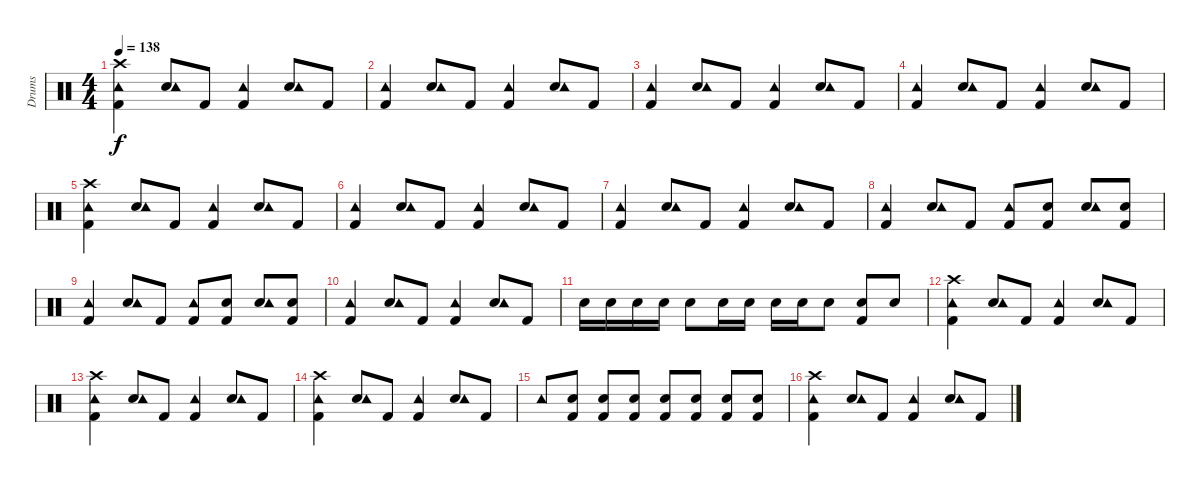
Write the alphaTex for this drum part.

\track ("Drums" "Drums") {instrument percussion}
\staff {score}
\articulation defaults
\ts (4 4)
\tempo 138
\clef neutral
\ks c
("Kick (hit) 2" "Tambourine (hit)" "Crash high (hit)").4{dy f} ("Snare (hit) 2" "Tambourine (hit)").8 "Kick (hit) 2".8 ("Kick (hit) 2" "Tambourine (hit)").4 ("Snare (hit) 2" "Tambourine (hit)").8 "Kick (hit) 2".8 |
("Kick (hit) 2" "Tambourine (hit)").4 ("Snare (hit) 2" "Tambourine (hit)").8 "Kick (hit) 2".8 ("Kick (hit) 2" "Tambourine (hit)").4 ("Snare (hit) 2" "Tambourine (hit)").8 "Kick (hit) 2".8 |
("Kick (hit) 2" "Tambourine (hit)").4 ("Snare (hit) 2" "Tambourine (hit)").8 "Kick (hit) 2".8 ("Kick (hit) 2" "Tambourine (hit)").4 ("Snare (hit) 2" "Tambourine (hit)").8 "Kick (hit) 2".8 |
("Kick (hit) 2" "Tambourine (hit)").4 ("Snare (hit) 2" "Tambourine (hit)").8 "Kick (hit) 2".8 ("Kick (hit) 2" "Tambourine (hit)").4 ("Snare (hit) 2" "Tambourine (hit)").8 "Kick (hit) 2".8 |
("Kick (hit) 2" "Tambourine (hit)" "Crash high (hit)").4 ("Snare (hit) 2" "Tambourine (hit)").8 "Kick (hit) 2".8 ("Kick (hit) 2" "Tambourine (hit)").4 ("Snare (hit) 2" "Tambourine (hit)").8 "Kick (hit) 2".8 |
("Kick (hit) 2" "Tambourine (hit)").4 ("Snare (hit) 2" "Tambourine (hit)").8 "Kick (hit) 2".8 ("Kick (hit) 2" "Tambourine (hit)").4 ("Snare (hit) 2" "Tambourine (hit)").8 "Kick (hit) 2".8 |
("Kick (hit) 2" "Tambourine (hit)").4 ("Snare (hit) 2" "Tambourine (hit)").8 "Kick (hit) 2".8 ("Kick (hit) 2" "Tambourine (hit)").4 ("Snare (hit) 2" "Tambourine (hit)").8 "Kick (hit) 2".8 |
("Kick (hit) 2" "Tambourine (hit)").4 ("Snare (hit) 2" "Tambourine (hit)").8 "Kick (hit) 2".8 ("Kick (hit) 2" "Tambourine (hit)").8 ("Snare (hit) 2" "Kick (hit) 2").8 ("Snare (hit) 2" "Tambourine (hit)").8 ("Snare (hit) 2" "Kick (hit) 2").8 |
("Kick (hit) 2" "Tambourine (hit)").4 ("Snare (hit) 2" "Tambourine (hit)").8 "Kick (hit) 2".8 ("Kick (hit) 2" "Tambourine (hit)").8 ("Snare (hit) 2" "Kick (hit) 2").8 ("Snare (hit) 2" "Tambourine (hit)").8 ("Snare (hit) 2" "Kick (hit) 2").8 |
("Kick (hit) 2" "Tambourine (hit)").4 ("Snare (hit) 2" "Tambourine (hit)").8 "Kick (hit) 2".8 ("Kick (hit) 2" "Tambourine (hit)").4 ("Snare (hit) 2" "Tambourine (hit)").8 "Kick (hit) 2".8 |
"Snare (hit) 2".16 "Snare (hit) 2".16 "Snare (hit) 2".16 "Snare (hit) 2".16 "Snare (hit) 2".8 "Snare (hit) 2".16 "Snare (hit) 2".16 "Snare (hit) 2".16 "Snare (hit) 2".16 "Snare (hit) 2".8 ("Snare (hit) 2" "Kick (hit) 2").8 "Snare (hit) 2".8 |
("Kick (hit) 2" "Tambourine (hit)" "Crash high (hit)").4 ("Snare (hit) 2" "Tambourine (hit)").8 "Kick (hit) 2".8 ("Kick (hit) 2" "Tambourine (hit)").4 ("Snare (hit) 2" "Tambourine (hit)").8 "Kick (hit) 2".8 |
("Kick (hit) 2" "Tambourine (hit)" "Crash high (hit)").4 ("Snare (hit) 2" "Tambourine (hit)").8 "Kick (hit) 2".8 ("Kick (hit) 2" "Tambourine (hit)").4 ("Snare (hit) 2" "Tambourine (hit)").8 "Kick (hit) 2".8 |
("Kick (hit) 2" "Tambourine (hit)" "Crash high (hit)").4 ("Snare (hit) 2" "Tambourine (hit)").8 "Kick (hit) 2".8 ("Kick (hit) 2" "Tambourine (hit)").4 ("Snare (hit) 2" "Tambourine (hit)").8 "Kick (hit) 2".8 |
"Tambourine (hit)".8 ("Snare (hit) 2" "Kick (hit) 2").8 ("Snare (hit) 2" "Kick (hit) 2").8 ("Snare (hit) 2" "Kick (hit) 2").8 ("Snare (hit) 2" "Kick (hit) 2").8 ("Snare (hit) 2" "Kick (hit) 2").8 ("Snare (hit) 2" "Kick (hit) 2").8 ("Snare (hit) 2" "Kick (hit) 2").8 |
("Kick (hit) 2" "Tambourine (hit)" "Crash high (hit)").4 ("Snare (hit) 2" "Tambourine (hit)").8 "Kick (hit) 2".8 ("Kick (hit) 2" "Tambourine (hit)").4 ("Snare (hit) 2" "Tambourine (hit)").8 "Kick (hit) 2".8
